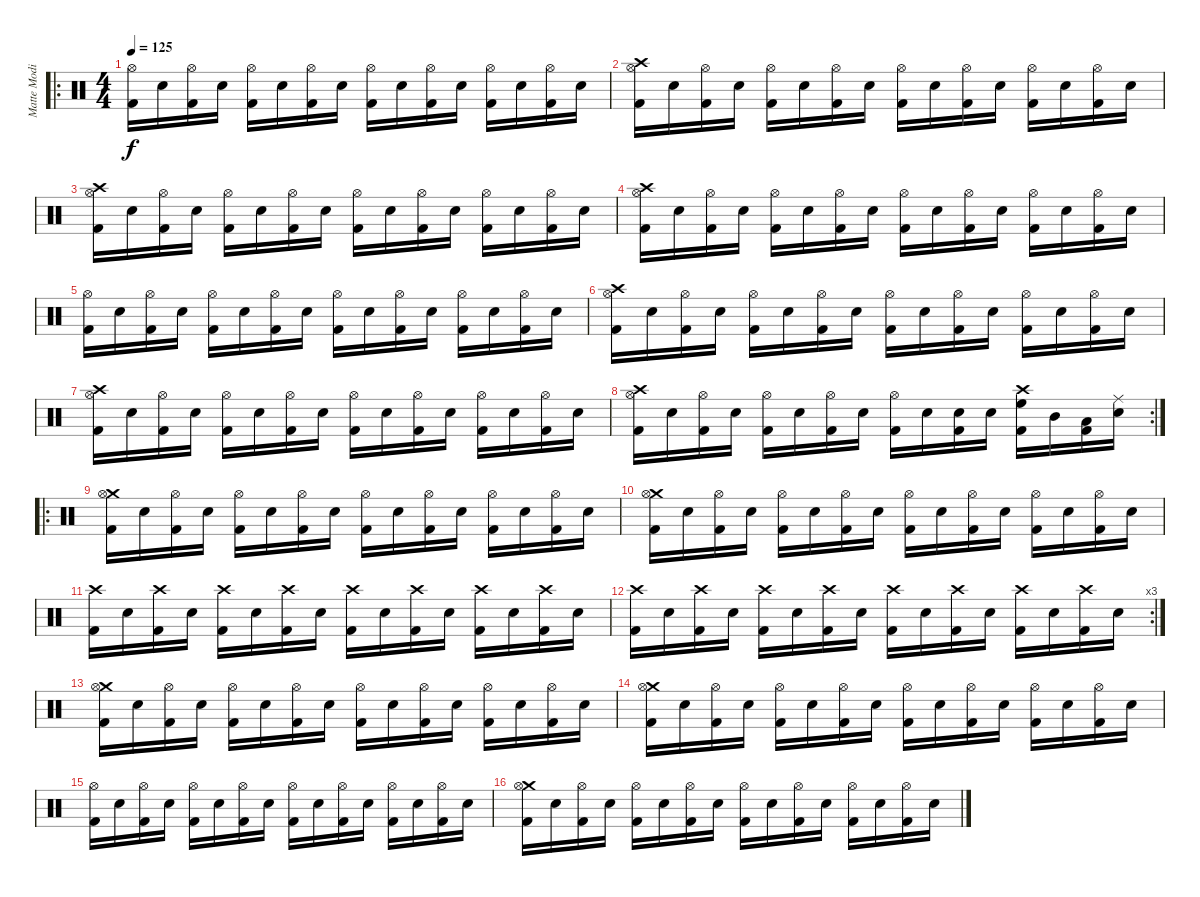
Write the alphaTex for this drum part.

\track ("Matte Modin" "Matte Modi") {instrument percussion}
\staff {score}
\articulation defaults
\ro
\ts (4 4)
\tempo 125
\clef neutral
\ks c
("Hi-Hat (open)" "Kick (hit) 2").16{dy f} "Electric Snare (hit)".16 ("Hi-Hat (open)" "Kick (hit) 2").16 "Electric Snare (hit)".16 ("Hi-Hat (open)" "Kick (hit) 2").16 "Electric Snare (hit)".16 ("Hi-Hat (open)" "Kick (hit) 2").16 "Electric Snare (hit)".16 ("Hi-Hat (open)" "Kick (hit) 2").16 "Electric Snare (hit)".16 ("Hi-Hat (open)" "Kick (hit) 2").16 "Electric Snare (hit)".16 ("Hi-Hat (open)" "Kick (hit) 2").16 "Electric Snare (hit)".16 ("Hi-Hat (open)" "Kick (hit) 2").16 "Electric Snare (hit)".16 |
("Crash high (hit)" "Hi-Hat (open)" "Kick (hit) 2").16 "Electric Snare (hit)".16 ("Hi-Hat (open)" "Kick (hit) 2").16 "Electric Snare (hit)".16 ("Hi-Hat (open)" "Kick (hit) 2").16 "Electric Snare (hit)".16 ("Hi-Hat (open)" "Kick (hit) 2").16 "Electric Snare (hit)".16 ("Hi-Hat (open)" "Kick (hit) 2").16 "Electric Snare (hit)".16 ("Hi-Hat (open)" "Kick (hit) 2").16 "Electric Snare (hit)".16 ("Hi-Hat (open)" "Kick (hit) 2").16 "Electric Snare (hit)".16 ("Hi-Hat (open)" "Kick (hit) 2").16 "Electric Snare (hit)".16 |
("Crash high (hit)" "Hi-Hat (open)" "Kick (hit) 2").16 "Electric Snare (hit)".16 ("Hi-Hat (open)" "Kick (hit) 2").16 "Electric Snare (hit)".16 ("Hi-Hat (open)" "Kick (hit) 2").16 "Electric Snare (hit)".16 ("Hi-Hat (open)" "Kick (hit) 2").16 "Electric Snare (hit)".16 ("Hi-Hat (open)" "Kick (hit) 2").16 "Electric Snare (hit)".16 ("Hi-Hat (open)" "Kick (hit) 2").16 "Electric Snare (hit)".16 ("Hi-Hat (open)" "Kick (hit) 2").16 "Electric Snare (hit)".16 ("Hi-Hat (open)" "Kick (hit) 2").16 "Electric Snare (hit)".16 |
("Crash high (hit)" "Hi-Hat (open)" "Kick (hit) 2").16 "Electric Snare (hit)".16 ("Hi-Hat (open)" "Kick (hit) 2").16 "Electric Snare (hit)".16 ("Hi-Hat (open)" "Kick (hit) 2").16 "Electric Snare (hit)".16 ("Hi-Hat (open)" "Kick (hit) 2").16 "Electric Snare (hit)".16 ("Hi-Hat (open)" "Kick (hit) 2").16 "Electric Snare (hit)".16 ("Hi-Hat (open)" "Kick (hit) 2").16 "Electric Snare (hit)".16 ("Hi-Hat (open)" "Kick (hit) 2").16 "Electric Snare (hit)".16 ("Hi-Hat (open)" "Kick (hit) 2").16 "Electric Snare (hit)".16 |
("Hi-Hat (open)" "Kick (hit) 2").16 "Electric Snare (hit)".16 ("Hi-Hat (open)" "Kick (hit) 2").16 "Electric Snare (hit)".16 ("Hi-Hat (open)" "Kick (hit) 2").16 "Electric Snare (hit)".16 ("Hi-Hat (open)" "Kick (hit) 2").16 "Electric Snare (hit)".16 ("Hi-Hat (open)" "Kick (hit) 2").16 "Electric Snare (hit)".16 ("Hi-Hat (open)" "Kick (hit) 2").16 "Electric Snare (hit)".16 ("Hi-Hat (open)" "Kick (hit) 2").16 "Electric Snare (hit)".16 ("Hi-Hat (open)" "Kick (hit) 2").16 "Electric Snare (hit)".16 |
("Crash high (hit)" "Hi-Hat (open)" "Kick (hit) 2").16 "Electric Snare (hit)".16 ("Hi-Hat (open)" "Kick (hit) 2").16 "Electric Snare (hit)".16 ("Hi-Hat (open)" "Kick (hit) 2").16 "Electric Snare (hit)".16 ("Hi-Hat (open)" "Kick (hit) 2").16 "Electric Snare (hit)".16 ("Hi-Hat (open)" "Kick (hit) 2").16 "Electric Snare (hit)".16 ("Hi-Hat (open)" "Kick (hit) 2").16 "Electric Snare (hit)".16 ("Hi-Hat (open)" "Kick (hit) 2").16 "Electric Snare (hit)".16 ("Hi-Hat (open)" "Kick (hit) 2").16 "Electric Snare (hit)".16 |
("Crash high (hit)" "Hi-Hat (open)" "Kick (hit) 2").16 "Electric Snare (hit)".16 ("Hi-Hat (open)" "Kick (hit) 2").16 "Electric Snare (hit)".16 ("Hi-Hat (open)" "Kick (hit) 2").16 "Electric Snare (hit)".16 ("Hi-Hat (open)" "Kick (hit) 2").16 "Electric Snare (hit)".16 ("Hi-Hat (open)" "Kick (hit) 2").16 "Electric Snare (hit)".16 ("Hi-Hat (open)" "Kick (hit) 2").16 "Electric Snare (hit)".16 ("Hi-Hat (open)" "Kick (hit) 2").16 "Electric Snare (hit)".16 ("Hi-Hat (open)" "Kick (hit) 2").16 "Electric Snare (hit)".16 |
\rc 2
("Crash high (hit)" "Hi-Hat (open)" "Kick (hit) 2").16 "Electric Snare (hit)".16 ("Hi-Hat (open)" "Kick (hit) 2").16 "Electric Snare (hit)".16 ("Hi-Hat (open)" "Kick (hit) 2").16 "Electric Snare (hit)".16 ("Hi-Hat (open)" "Kick (hit) 2").16 "Electric Snare (hit)".16 ("Hi-Hat (open)" "Kick (hit) 2").16 "Electric Snare (hit)".16 ("Electric Snare (hit)" "Kick (hit) 2").16 "Electric Snare (hit)".16 ("Crash high (hit)" "High Floor Tom (hit)" "Kick (hit) 2").16 "Mid Tom (hit)".16 ("Low Tom (hit)" "Kick (hit) 2").16 ("Ride (middle)" "Electric Snare (hit)").16 |
\ro
("Crash medium (hit)" "Hi-Hat (open)" "Kick (hit) 2").16 "Electric Snare (hit)".16 ("Hi-Hat (open)" "Kick (hit) 2").16 "Electric Snare (hit)".16 ("Hi-Hat (open)" "Kick (hit) 2").16 "Electric Snare (hit)".16 ("Hi-Hat (open)" "Kick (hit) 2").16 "Electric Snare (hit)".16 ("Hi-Hat (open)" "Kick (hit) 2").16 "Electric Snare (hit)".16 ("Hi-Hat (open)" "Kick (hit) 2").16 "Electric Snare (hit)".16 ("Hi-Hat (open)" "Kick (hit) 2").16 "Electric Snare (hit)".16 ("Hi-Hat (open)" "Kick (hit) 2").16 "Electric Snare (hit)".16 |
("Crash medium (hit)" "Hi-Hat (open)" "Kick (hit) 2").16 "Electric Snare (hit)".16 ("Hi-Hat (open)" "Kick (hit) 2").16 "Electric Snare (hit)".16 ("Hi-Hat (open)" "Kick (hit) 2").16 "Electric Snare (hit)".16 ("Hi-Hat (open)" "Kick (hit) 2").16 "Electric Snare (hit)".16 ("Hi-Hat (open)" "Kick (hit) 2").16 "Electric Snare (hit)".16 ("Hi-Hat (open)" "Kick (hit) 2").16 "Electric Snare (hit)".16 ("Hi-Hat (open)" "Kick (hit) 2").16 "Electric Snare (hit)".16 ("Hi-Hat (open)" "Kick (hit) 2").16 "Electric Snare (hit)".16 |
("Crash high (hit)" "Kick (hit) 2").16 "Electric Snare (hit)".16 ("Crash high (hit)" "Kick (hit) 2").16 "Electric Snare (hit)".16 ("Crash high (hit)" "Kick (hit) 2").16 "Electric Snare (hit)".16 ("Crash high (hit)" "Kick (hit) 2").16 "Electric Snare (hit)".16 ("Crash high (hit)" "Kick (hit) 2").16 "Electric Snare (hit)".16 ("Crash high (hit)" "Kick (hit) 2").16 "Electric Snare (hit)".16 ("Crash high (hit)" "Kick (hit) 2").16 "Electric Snare (hit)".16 ("Crash high (hit)" "Kick (hit) 2").16 "Electric Snare (hit)".16 |
\rc 3
("Crash high (hit)" "Kick (hit) 2").16 "Electric Snare (hit)".16 ("Crash high (hit)" "Kick (hit) 2").16 "Electric Snare (hit)".16 ("Crash high (hit)" "Kick (hit) 2").16 "Electric Snare (hit)".16 ("Crash high (hit)" "Kick (hit) 2").16 "Electric Snare (hit)".16 ("Crash high (hit)" "Kick (hit) 2").16 "Electric Snare (hit)".16 ("Crash high (hit)" "Kick (hit) 2").16 "Electric Snare (hit)".16 ("Crash high (hit)" "Kick (hit) 2").16 "Electric Snare (hit)".16 ("Crash high (hit)" "Kick (hit) 2").16 "Electric Snare (hit)".16 |
("Crash medium (hit)" "Hi-Hat (open)" "Kick (hit) 2").16 "Electric Snare (hit)".16 ("Hi-Hat (open)" "Kick (hit) 2").16 "Electric Snare (hit)".16 ("Hi-Hat (open)" "Kick (hit) 2").16 "Electric Snare (hit)".16 ("Hi-Hat (open)" "Kick (hit) 2").16 "Electric Snare (hit)".16 ("Hi-Hat (open)" "Kick (hit) 2").16 "Electric Snare (hit)".16 ("Hi-Hat (open)" "Kick (hit) 2").16 "Electric Snare (hit)".16 ("Hi-Hat (open)" "Kick (hit) 2").16 "Electric Snare (hit)".16 ("Hi-Hat (open)" "Kick (hit) 2").16 "Electric Snare (hit)".16 |
("Crash medium (hit)" "Hi-Hat (open)" "Kick (hit) 2").16 "Electric Snare (hit)".16 ("Hi-Hat (open)" "Kick (hit) 2").16 "Electric Snare (hit)".16 ("Hi-Hat (open)" "Kick (hit) 2").16 "Electric Snare (hit)".16 ("Hi-Hat (open)" "Kick (hit) 2").16 "Electric Snare (hit)".16 ("Hi-Hat (open)" "Kick (hit) 2").16 "Electric Snare (hit)".16 ("Hi-Hat (open)" "Kick (hit) 2").16 "Electric Snare (hit)".16 ("Hi-Hat (open)" "Kick (hit) 2").16 "Electric Snare (hit)".16 ("Hi-Hat (open)" "Kick (hit) 2").16 "Electric Snare (hit)".16 |
("Hi-Hat (open)" "Kick (hit) 2").16 "Electric Snare (hit)".16 ("Hi-Hat (open)" "Kick (hit) 2").16 "Electric Snare (hit)".16 ("Hi-Hat (open)" "Kick (hit) 2").16 "Electric Snare (hit)".16 ("Hi-Hat (open)" "Kick (hit) 2").16 "Electric Snare (hit)".16 ("Hi-Hat (open)" "Kick (hit) 2").16 "Electric Snare (hit)".16 ("Hi-Hat (open)" "Kick (hit) 2").16 "Electric Snare (hit)".16 ("Hi-Hat (open)" "Kick (hit) 2").16 "Electric Snare (hit)".16 ("Hi-Hat (open)" "Kick (hit) 2").16 "Electric Snare (hit)".16 |
("Crash medium (hit)" "Hi-Hat (open)" "Kick (hit) 2").16 "Electric Snare (hit)".16 ("Hi-Hat (open)" "Kick (hit) 2").16 "Electric Snare (hit)".16 ("Hi-Hat (open)" "Kick (hit) 2").16 "Electric Snare (hit)".16 ("Hi-Hat (open)" "Kick (hit) 2").16 "Electric Snare (hit)".16 ("Hi-Hat (open)" "Kick (hit) 2").16 "Electric Snare (hit)".16 ("Hi-Hat (open)" "Kick (hit) 2").16 "Electric Snare (hit)".16 ("Hi-Hat (open)" "Kick (hit) 2").16 "Electric Snare (hit)".16 ("Hi-Hat (open)" "Kick (hit) 2").16 "Electric Snare (hit)".16
